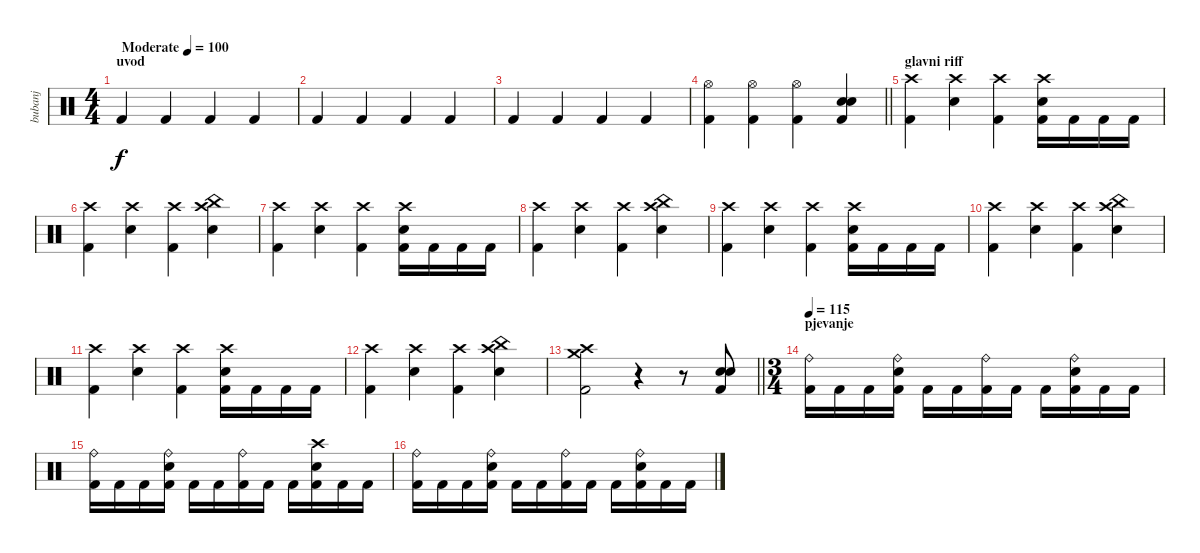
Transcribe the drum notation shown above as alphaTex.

\track ("bubanj" "bubanj") {instrument percussion}
\staff {score}
\articulation defaults
\ts (4 4)
\section ("" "uvod")
\tempo (100 "Moderate")
\clef neutral
\ks c "Kick (hit) 2".4{dy f} "Kick (hit) 2".4 "Kick (hit) 2".4 "Kick (hit) 2".4
|
"Kick (hit) 2".4 "Kick (hit) 2".4 "Kick (hit) 2".4 "Kick (hit) 2".4 |
"Kick (hit) 2".4 "Kick (hit) 2".4 "Kick (hit) 2".4 "Kick (hit) 2".4 |
\barLineRight lightlight
("Hi-Hat (open)" "Kick (hit) 2").4 ("Hi-Hat (open)" "Kick (hit) 2").4 ("Hi-Hat (open)" "Kick (hit) 2").4 ("Electric Snare (hit)" "Snare (hit) 2" "Kick (hit) 2").4 |
\section ("" "glavni riff")
("Crash high (hit)" "Kick (hit) 2").4 ("Crash high (hit)" "Electric Snare (hit)").4 ("Crash high (hit)" "Kick (hit) 2").4 ("Crash high (hit)" "Electric Snare (hit)" "Kick (hit) 2").16 "Kick (hit) 2".16 "Kick (hit) 2".16 "Kick (hit) 2".16 |
("Crash high (hit)" "Kick (hit) 2").4 ("Crash high (hit)" "Electric Snare (hit)").4 ("Crash high (hit)" "Kick (hit) 2").4 ("China (hit)" "Crash high (hit)" "Electric Snare (hit)").4 |
("Crash high (hit)" "Kick (hit) 2").4 ("Crash high (hit)" "Electric Snare (hit)").4 ("Crash high (hit)" "Kick (hit) 2").4 ("Crash high (hit)" "Electric Snare (hit)" "Kick (hit) 2").16 "Kick (hit) 2".16 "Kick (hit) 2".16 "Kick (hit) 2".16 |
("Crash high (hit)" "Kick (hit) 2").4 ("Crash high (hit)" "Electric Snare (hit)").4 ("Crash high (hit)" "Kick (hit) 2").4 ("China (hit)" "Crash high (hit)" "Electric Snare (hit)").4 |
("Crash high (hit)" "Kick (hit) 2").4 ("Crash high (hit)" "Electric Snare (hit)").4 ("Crash high (hit)" "Kick (hit) 2").4 ("Crash high (hit)" "Electric Snare (hit)" "Kick (hit) 2").16 "Kick (hit) 2".16 "Kick (hit) 2".16 "Kick (hit) 2".16 |
("Crash high (hit)" "Kick (hit) 2").4 ("Crash high (hit)" "Electric Snare (hit)").4 ("Crash high (hit)" "Kick (hit) 2").4 ("China (hit)" "Crash high (hit)" "Electric Snare (hit)").4 |
("Crash high (hit)" "Kick (hit) 2").4 ("Crash high (hit)" "Electric Snare (hit)").4 ("Crash high (hit)" "Kick (hit) 2").4 ("Crash high (hit)" "Electric Snare (hit)" "Kick (hit) 2").16 "Kick (hit) 2".16 "Kick (hit) 2".16 "Kick (hit) 2".16 |
("Crash high (hit)" "Kick (hit) 2").4 ("Crash high (hit)" "Electric Snare (hit)").4 ("Crash high (hit)" "Kick (hit) 2").4 ("China (hit)" "Crash high (hit)" "Electric Snare (hit)").4 |
\barLineRight lightlight
("Crash medium (hit)" "Crash high (hit)" "Kick (hit) 2").2 r.4 r.8 ("Snare (hit) 2" "Electric Snare (hit)" "Kick (hit) 2").8 |
\ts (3 4)
\section ("" "pjevanje")
\tempo 115
("Ride (bell)" "Kick (hit) 2").16 "Kick (hit) 2".16 "Kick (hit) 2".16 ("Ride (bell)" "Electric Snare (hit)" "Kick (hit) 2").16 "Kick (hit) 2".16 "Kick (hit) 2".16 ("Ride (bell)" "Kick (hit) 2").16 "Kick (hit) 2".16 "Kick (hit) 2".16 ("Ride (bell)" "Electric Snare (hit)" "Kick (hit) 2").16 "Kick (hit) 2".16 "Kick (hit) 2".16 |
("Ride (bell)" "Kick (hit) 2").16 "Kick (hit) 2".16 "Kick (hit) 2".16 ("Ride (bell)" "Electric Snare (hit)" "Kick (hit) 2").16 "Kick (hit) 2".16 "Kick (hit) 2".16 ("Ride (bell)" "Kick (hit) 2").16 "Kick (hit) 2".16 "Kick (hit) 2".16 ("Crash high (hit)" "Electric Snare (hit)" "Kick (hit) 2").16 "Kick (hit) 2".16 "Kick (hit) 2".16 |
("Ride (bell)" "Kick (hit) 2").16 "Kick (hit) 2".16 "Kick (hit) 2".16 ("Ride (bell)" "Electric Snare (hit)" "Kick (hit) 2").16 "Kick (hit) 2".16 "Kick (hit) 2".16 ("Ride (bell)" "Kick (hit) 2").16 "Kick (hit) 2".16 "Kick (hit) 2".16 ("Ride (bell)" "Electric Snare (hit)" "Kick (hit) 2").16 "Kick (hit) 2".16 "Kick (hit) 2".16
